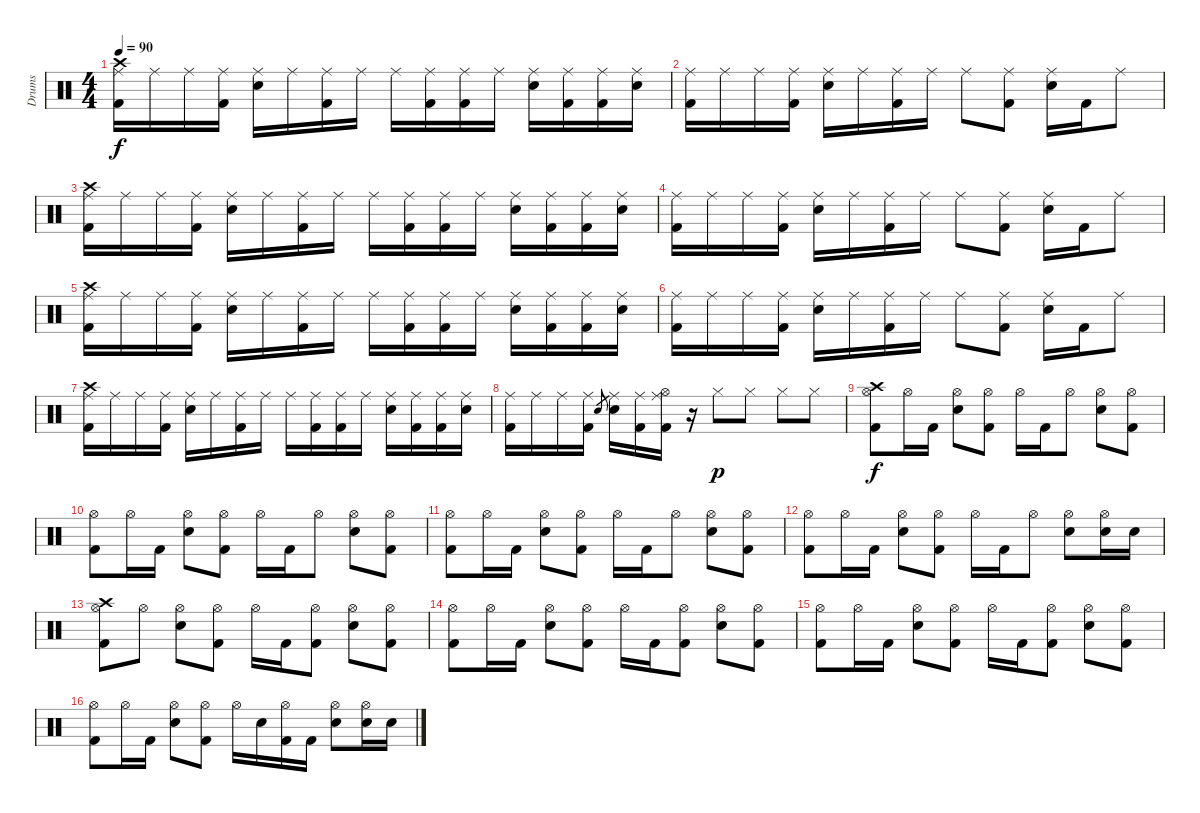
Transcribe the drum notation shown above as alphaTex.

\track ("Drums" "Drums") {instrument percussion}
\staff {score}
\articulation defaults
\ts (4 4)
\tempo 90
\clef neutral
\ks c
("Crash high (hit)" "Ride (middle)" "Kick (hit) 2").16{dy f} "Ride (middle)".16 "Ride (middle)".16 ("Ride (middle)" "Kick (hit) 2").16 ("Ride (middle)" "Electric Snare (hit)").16 "Ride (middle)".16 ("Ride (middle)" "Kick (hit) 2").16 "Ride (middle)".16 "Ride (middle)".16 ("Ride (middle)" "Kick (hit) 2").16 ("Ride (middle)" "Kick (hit) 2").16 "Ride (middle)".16 ("Ride (middle)" "Electric Snare (hit)").16 ("Ride (middle)" "Kick (hit) 2").16 ("Ride (middle)" "Kick (hit) 2").16 ("Ride (middle)" "Electric Snare (hit)").16 |
("Ride (middle)" "Kick (hit) 2").16 "Ride (middle)".16 "Ride (middle)".16 ("Ride (middle)" "Kick (hit) 2").16 ("Ride (middle)" "Electric Snare (hit)").16 "Ride (middle)".16 ("Ride (middle)" "Kick (hit) 2").16 "Ride (middle)".16 "Ride (middle)".8 ("Ride (middle)" "Kick (hit) 2").8 ("Ride (middle)" "Electric Snare (hit)").16 "Kick (hit) 2".16 "Ride (middle)".8 |
("Crash high (hit)" "Ride (middle)" "Kick (hit) 2").16 "Ride (middle)".16 "Ride (middle)".16 ("Ride (middle)" "Kick (hit) 2").16 ("Ride (middle)" "Electric Snare (hit)").16 "Ride (middle)".16 ("Ride (middle)" "Kick (hit) 2").16 "Ride (middle)".16 "Ride (middle)".16 ("Ride (middle)" "Kick (hit) 2").16 ("Ride (middle)" "Kick (hit) 2").16 "Ride (middle)".16 ("Ride (middle)" "Electric Snare (hit)").16 ("Ride (middle)" "Kick (hit) 2").16 ("Ride (middle)" "Kick (hit) 2").16 ("Ride (middle)" "Electric Snare (hit)").16 |
("Ride (middle)" "Kick (hit) 2").16 "Ride (middle)".16 "Ride (middle)".16 ("Ride (middle)" "Kick (hit) 2").16 ("Ride (middle)" "Electric Snare (hit)").16 "Ride (middle)".16 ("Ride (middle)" "Kick (hit) 2").16 "Ride (middle)".16 "Ride (middle)".8 ("Ride (middle)" "Kick (hit) 2").8 ("Ride (middle)" "Electric Snare (hit)").16 "Kick (hit) 2".16 "Ride (middle)".8 |
("Crash high (hit)" "Ride (middle)" "Kick (hit) 2").16 "Ride (middle)".16 "Ride (middle)".16 ("Ride (middle)" "Kick (hit) 2").16 ("Ride (middle)" "Electric Snare (hit)").16 "Ride (middle)".16 ("Ride (middle)" "Kick (hit) 2").16 "Ride (middle)".16 "Ride (middle)".16 ("Ride (middle)" "Kick (hit) 2").16 ("Ride (middle)" "Kick (hit) 2").16 "Ride (middle)".16 ("Ride (middle)" "Electric Snare (hit)").16 ("Ride (middle)" "Kick (hit) 2").16 ("Ride (middle)" "Kick (hit) 2").16 ("Ride (middle)" "Electric Snare (hit)").16 |
("Ride (middle)" "Kick (hit) 2").16 "Ride (middle)".16 "Ride (middle)".16 ("Ride (middle)" "Kick (hit) 2").16 ("Ride (middle)" "Electric Snare (hit)").16 "Ride (middle)".16 ("Ride (middle)" "Kick (hit) 2").16 "Ride (middle)".16 "Ride (middle)".8 ("Ride (middle)" "Kick (hit) 2").8 ("Ride (middle)" "Electric Snare (hit)").16 "Kick (hit) 2".16 "Ride (middle)".8 |
("Crash high (hit)" "Ride (middle)" "Kick (hit) 2").16 "Ride (middle)".16 "Ride (middle)".16 ("Ride (middle)" "Kick (hit) 2").16 ("Ride (middle)" "Electric Snare (hit)").16 "Ride (middle)".16 ("Ride (middle)" "Kick (hit) 2").16 "Ride (middle)".16 "Ride (middle)".16 ("Ride (middle)" "Kick (hit) 2").16 ("Ride (middle)" "Kick (hit) 2").16 "Ride (middle)".16 ("Ride (middle)" "Electric Snare (hit)").16 ("Ride (middle)" "Kick (hit) 2").16 ("Ride (middle)" "Kick (hit) 2").16 ("Ride (middle)" "Electric Snare (hit)").16 |
("Ride (middle)" "Kick (hit) 2").16 "Ride (middle)".16 "Ride (middle)".16 ("Ride (middle)" "Kick (hit) 2").16 "Electric Snare (hit)".8{gr} ("Ride (middle)" "Electric Snare (hit)").16 ("Ride (middle)" "Kick (hit) 2").16 ("Hi-Hat (open)" "Ride (middle)" "Kick (hit) 2").16 r.16 "Hi-Hat (closed)".8{dy p} "Hi-Hat (closed)".8 "Hi-Hat (closed)".8 "Hi-Hat (closed)".8 |
("Crash high (hit)" "Hi-Hat (open)" "Kick (hit) 2").8{dy f} "Hi-Hat (open)".16 "Kick (hit) 2".16 ("Hi-Hat (open)" "Electric Snare (hit)").8 ("Hi-Hat (open)" "Kick (hit) 2").8 "Hi-Hat (open)".16 "Kick (hit) 2".16 "Hi-Hat (open)".8 ("Hi-Hat (open)" "Electric Snare (hit)").8 ("Hi-Hat (open)" "Kick (hit) 2").8 |
("Hi-Hat (open)" "Kick (hit) 2").8 "Hi-Hat (open)".16 "Kick (hit) 2".16 ("Hi-Hat (open)" "Electric Snare (hit)").8 ("Hi-Hat (open)" "Kick (hit) 2").8 "Hi-Hat (open)".16 "Kick (hit) 2".16 "Hi-Hat (open)".8 ("Hi-Hat (open)" "Electric Snare (hit)").8 ("Hi-Hat (open)" "Kick (hit) 2").8 |
("Hi-Hat (open)" "Kick (hit) 2").8 "Hi-Hat (open)".16 "Kick (hit) 2".16 ("Hi-Hat (open)" "Electric Snare (hit)").8 ("Hi-Hat (open)" "Kick (hit) 2").8 "Hi-Hat (open)".16 "Kick (hit) 2".16 "Hi-Hat (open)".8 ("Hi-Hat (open)" "Electric Snare (hit)").8 ("Hi-Hat (open)" "Kick (hit) 2").8 |
("Hi-Hat (open)" "Kick (hit) 2").8 "Hi-Hat (open)".16 "Kick (hit) 2".16 ("Hi-Hat (open)" "Electric Snare (hit)").8 ("Hi-Hat (open)" "Kick (hit) 2").8 "Hi-Hat (open)".16 "Kick (hit) 2".16 "Hi-Hat (open)".8 ("Hi-Hat (open)" "Electric Snare (hit)").8 ("Hi-Hat (open)" "Electric Snare (hit)").16 "Electric Snare (hit)".16 |
("Crash high (hit)" "Hi-Hat (open)" "Kick (hit) 2").8 "Hi-Hat (open)".8 ("Hi-Hat (open)" "Electric Snare (hit)").8 ("Hi-Hat (open)" "Kick (hit) 2").8 "Hi-Hat (open)".16 "Kick (hit) 2".16 ("Hi-Hat (open)" "Kick (hit) 2").8 ("Hi-Hat (open)" "Electric Snare (hit)").8 ("Hi-Hat (open)" "Kick (hit) 2").8 |
("Hi-Hat (open)" "Kick (hit) 2").8 "Hi-Hat (open)".16 "Kick (hit) 2".16 ("Hi-Hat (open)" "Electric Snare (hit)").8 ("Hi-Hat (open)" "Kick (hit) 2").8 "Hi-Hat (open)".16 "Kick (hit) 2".16 ("Hi-Hat (open)" "Kick (hit) 2").8 ("Hi-Hat (open)" "Electric Snare (hit)").8 ("Hi-Hat (open)" "Kick (hit) 2").8 |
("Hi-Hat (open)" "Kick (hit) 2").8 "Hi-Hat (open)".16 "Kick (hit) 2".16 ("Hi-Hat (open)" "Electric Snare (hit)").8 ("Hi-Hat (open)" "Kick (hit) 2").8 "Hi-Hat (open)".16 "Kick (hit) 2".16 ("Hi-Hat (open)" "Kick (hit) 2").8 ("Hi-Hat (open)" "Electric Snare (hit)").8 ("Hi-Hat (open)" "Kick (hit) 2").8 |
("Hi-Hat (open)" "Kick (hit) 2").8 "Hi-Hat (open)".16 "Kick (hit) 2".16 ("Hi-Hat (open)" "Electric Snare (hit)").8 ("Hi-Hat (open)" "Kick (hit) 2").8 "Hi-Hat (open)".16 "Electric Snare (hit)".16 ("Hi-Hat (open)" "Kick (hit) 2").16 "Kick (hit) 2".16 ("Hi-Hat (open)" "Electric Snare (hit)").8 ("Hi-Hat (open)" "Electric Snare (hit)").16 "Electric Snare (hit)".16
